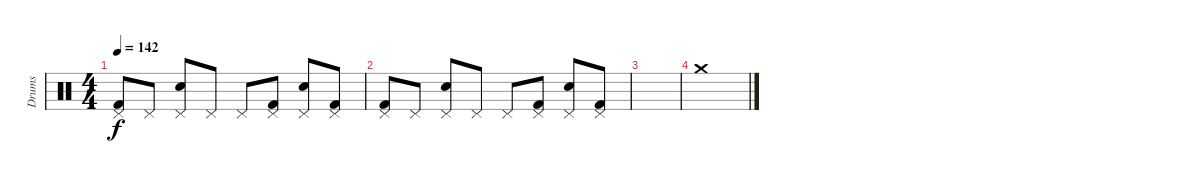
\track ("Drums" "Drums") {instrument percussion}
\staff {score}
\articulation defaults
\ts (4 4)
\tempo 142
\clef neutral
\ks c
("Pedal Hi-Hat (hit)" "Kick (hit) 2").8{dy f} "Pedal Hi-Hat (hit)".8 ("Pedal Hi-Hat (hit)" "Snare (hit) 2").8 "Pedal Hi-Hat (hit)".8 "Pedal Hi-Hat (hit)".8 ("Pedal Hi-Hat (hit)" "Kick (hit) 2").8 ("Pedal Hi-Hat (hit)" "Snare (hit) 2").8 ("Pedal Hi-Hat (hit)" "Kick (hit) 2").8 |
("Pedal Hi-Hat (hit)" "Kick (hit) 2").8 "Pedal Hi-Hat (hit)".8 ("Pedal Hi-Hat (hit)" "Snare (hit) 2").8 "Pedal Hi-Hat (hit)".8 "Pedal Hi-Hat (hit)".8 ("Pedal Hi-Hat (hit)" "Kick (hit) 2").8 ("Pedal Hi-Hat (hit)" "Snare (hit) 2").8 ("Pedal Hi-Hat (hit)" "Kick (hit) 2").8 |
|
"Crash medium (hit)".1{volume 12}
